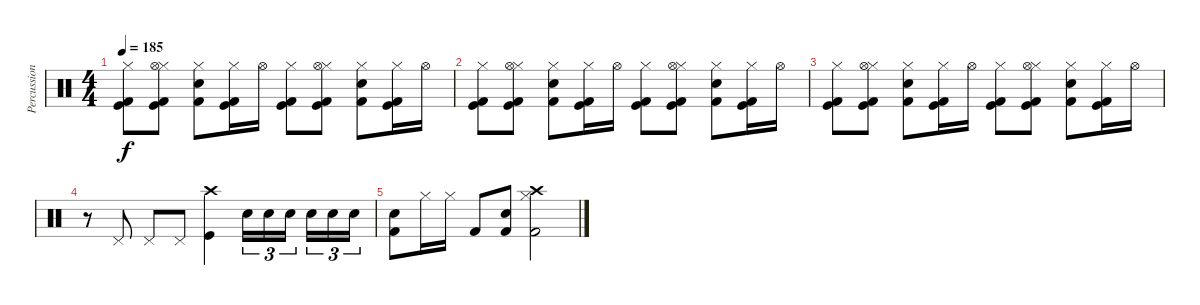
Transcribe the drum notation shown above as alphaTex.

\track ("Percussion" "Percussion") {instrument percussion}
\staff {score}
\articulation defaults
\ts (4 4)
\tempo 185
\clef neutral
\ks c
("Kick (hit)" "Hi-Hat (closed)" "Kick (hit) 2").8{dy f} ("Kick (hit)" "Hi-Hat (closed)" "Hi-Hat (open)" "Kick (hit) 2").8 ("Snare (hit) 2" "Hi-Hat (closed)" "Kick (hit) 2").8 ("Kick (hit)" "Hi-Hat (closed)" "Kick (hit) 2").16 "Hi-Hat (open)".16 ("Kick (hit)" "Hi-Hat (closed)" "Kick (hit) 2").8 ("Kick (hit)" "Hi-Hat (closed)" "Hi-Hat (open)" "Kick (hit) 2").8 ("Snare (hit) 2" "Hi-Hat (closed)" "Kick (hit) 2").8 ("Kick (hit)" "Hi-Hat (closed)" "Kick (hit) 2").16 "Hi-Hat (open)".16 |
("Kick (hit)" "Hi-Hat (closed)" "Kick (hit) 2").8 ("Kick (hit)" "Hi-Hat (closed)" "Hi-Hat (open)" "Kick (hit) 2").8 ("Snare (hit) 2" "Hi-Hat (closed)" "Kick (hit) 2").8 ("Kick (hit)" "Hi-Hat (closed)" "Kick (hit) 2").16 "Hi-Hat (open)".16 ("Kick (hit)" "Hi-Hat (closed)" "Kick (hit) 2").8 ("Kick (hit)" "Hi-Hat (closed)" "Hi-Hat (open)" "Kick (hit) 2").8 ("Snare (hit) 2" "Hi-Hat (closed)" "Kick (hit) 2").8 ("Kick (hit)" "Hi-Hat (closed)" "Kick (hit) 2").16 "Hi-Hat (open)".16 |
("Kick (hit)" "Hi-Hat (closed)" "Kick (hit) 2").8 ("Kick (hit)" "Hi-Hat (closed)" "Hi-Hat (open)" "Kick (hit) 2").8 ("Snare (hit) 2" "Hi-Hat (closed)" "Kick (hit) 2").8 ("Kick (hit)" "Hi-Hat (closed)" "Kick (hit) 2").16 "Hi-Hat (open)".16 ("Kick (hit)" "Hi-Hat (closed)" "Kick (hit) 2").8 ("Kick (hit)" "Hi-Hat (closed)" "Hi-Hat (open)" "Kick (hit) 2").8 ("Snare (hit) 2" "Hi-Hat (closed)" "Kick (hit) 2").8 ("Kick (hit)" "Hi-Hat (closed)" "Kick (hit) 2").16 "Hi-Hat (open)".16 |
r.8 "Pedal Hi-Hat (hit)".8 "Pedal Hi-Hat (hit)".8 "Pedal Hi-Hat (hit)".8 ("Crash high (hit)" "Kick (hit)").4 "Electric Snare (hit)".16{tu (3 2)} "Electric Snare (hit)".16{tu (3 2)} "Electric Snare (hit)".16{tu (3 2)} "Electric Snare (hit)".16{tu (3 2)} "Electric Snare (hit)".16{tu (3 2)} "Electric Snare (hit)".16{tu (3 2)} |
("Snare (hit) 2" "Kick (hit) 2").8 "Hi-Hat (closed)".16 "Hi-Hat (closed)".16 "Kick (hit) 2".8 ("Snare (hit) 2" "Kick (hit) 2").8 ("Hi-Hat (closed)" "Kick (hit) 2" "Crash high (hit)").2
